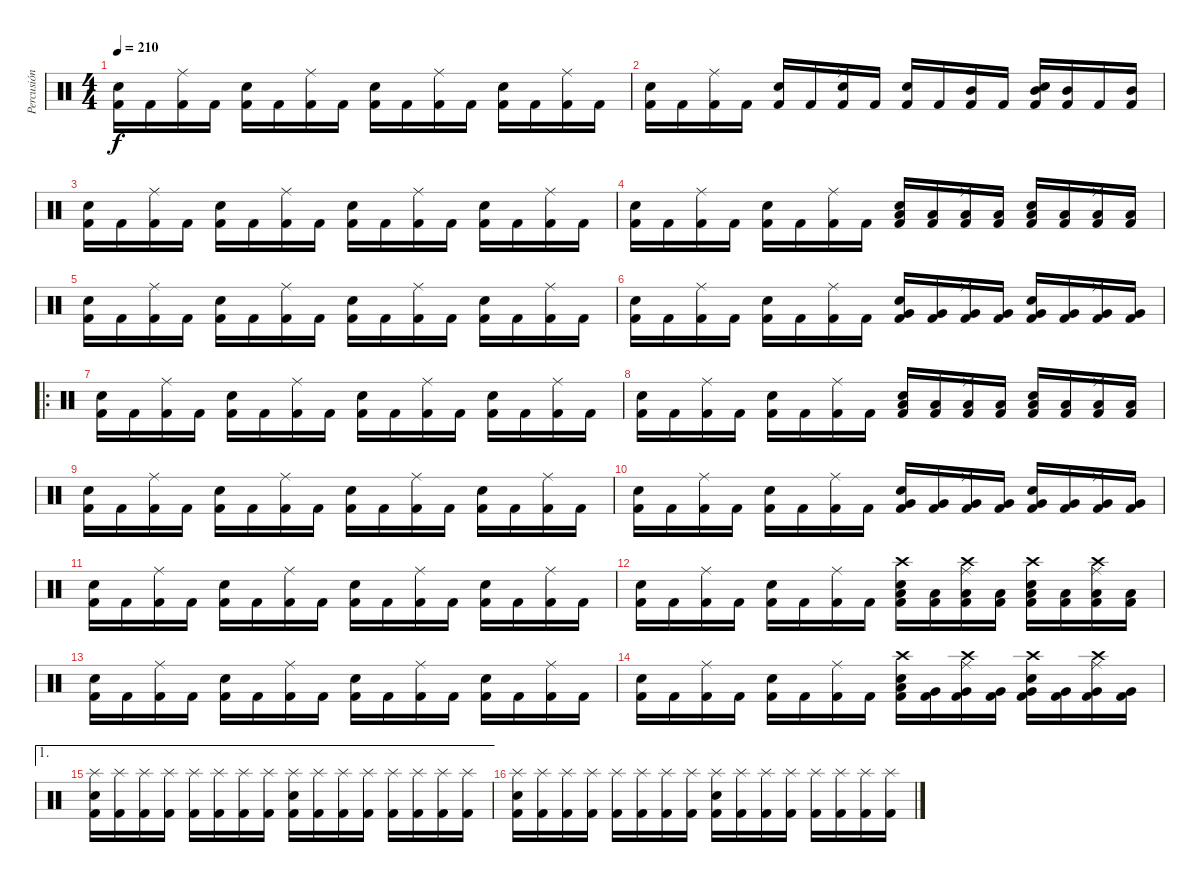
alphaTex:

\track ("Percusión" "Percusión") {instrument percussion}
\staff {score}
\articulation defaults
\ts (4 4)
\tempo 210
\clef neutral
\ks c
("Kick (hit) 2" "Snare (hit) 2").16{dy f} "Kick (hit) 2".16 ("Kick (hit) 2" "Ride (middle)").16 "Kick (hit) 2".16 ("Kick (hit) 2" "Snare (hit) 2").16 "Kick (hit) 2".16 ("Kick (hit) 2" "Ride (middle)").16 "Kick (hit) 2".16 ("Kick (hit) 2" "Snare (hit) 2").16 "Kick (hit) 2".16 ("Kick (hit) 2" "Ride (middle)").16 "Kick (hit) 2".16 ("Kick (hit) 2" "Snare (hit) 2").16 "Kick (hit) 2".16 ("Kick (hit) 2" "Ride (middle)").16 "Kick (hit) 2".16 |
("Kick (hit) 2" "Snare (hit) 2").16 "Kick (hit) 2".16 ("Kick (hit) 2" "Ride (middle)").16 "Kick (hit) 2".16 ("Kick (hit) 2" "Snare (hit) 2").16 "Kick (hit) 2".16 ("Kick (hit) 2" "Ride (middle)" "Electric Snare (hit)").16 "Kick (hit) 2".16 ("Kick (hit) 2" "Snare (hit) 2").16 "Kick (hit) 2".16 ("Kick (hit) 2" "Mid Tom (hit)").16 "Kick (hit) 2".16 ("Kick (hit) 2" "Mid Tom (hit)" "Snare (hit) 2").16 ("Kick (hit) 2" "Mid Tom (hit)").16 "Kick (hit) 2".16 ("Kick (hit) 2" "Mid Tom (hit)").16 |
("Kick (hit) 2" "Snare (hit) 2").16 "Kick (hit) 2".16 ("Kick (hit) 2" "Ride (middle)").16 "Kick (hit) 2".16 ("Kick (hit) 2" "Snare (hit) 2").16 "Kick (hit) 2".16 ("Kick (hit) 2" "Ride (middle)").16 "Kick (hit) 2".16 ("Kick (hit) 2" "Snare (hit) 2").16 "Kick (hit) 2".16 ("Kick (hit) 2" "Ride (middle)").16 "Kick (hit) 2".16 ("Kick (hit) 2" "Snare (hit) 2").16 "Kick (hit) 2".16 ("Kick (hit) 2" "Ride (middle)").16 "Kick (hit) 2".16 |
("Kick (hit) 2" "Snare (hit) 2").16 "Kick (hit) 2".16 ("Kick (hit) 2" "Ride (middle)").16 "Kick (hit) 2".16 ("Kick (hit) 2" "Snare (hit) 2").16 "Kick (hit) 2".16 ("Kick (hit) 2" "Ride (middle)").16 "Kick (hit) 2".16 ("Kick (hit) 2" "Snare (hit) 2" "Low Tom (hit)").16 ("Kick (hit) 2" "Low Tom (hit)").16 ("Kick (hit) 2" "Ride (middle)" "Low Tom (hit)").16 ("Kick (hit) 2" "Low Tom (hit)").16 ("Kick (hit) 2" "Snare (hit) 2" "Low Tom (hit)").16 ("Kick (hit) 2" "Low Tom (hit)").16 ("Kick (hit) 2" "Ride (middle)" "Low Tom (hit)").16 ("Kick (hit) 2" "Low Tom (hit)").16 |
("Kick (hit) 2" "Snare (hit) 2").16 "Kick (hit) 2".16 ("Kick (hit) 2" "Ride (middle)").16 "Kick (hit) 2".16 ("Kick (hit) 2" "Snare (hit) 2").16 "Kick (hit) 2".16 ("Kick (hit) 2" "Ride (middle)").16 "Kick (hit) 2".16 ("Kick (hit) 2" "Snare (hit) 2").16 "Kick (hit) 2".16 ("Kick (hit) 2" "Ride (middle)").16 "Kick (hit) 2".16 ("Kick (hit) 2" "Snare (hit) 2").16 "Kick (hit) 2".16 ("Kick (hit) 2" "Ride (middle)").16 "Kick (hit) 2".16 |
("Kick (hit) 2" "Snare (hit) 2").16 "Kick (hit) 2".16 ("Kick (hit) 2" "Ride (middle)").16 "Kick (hit) 2".16 ("Kick (hit) 2" "Snare (hit) 2").16 "Kick (hit) 2".16 ("Kick (hit) 2" "Ride (middle)").16 "Kick (hit) 2".16 ("Kick (hit) 2" "Snare (hit) 2" "Very Low Tom (hit)").16 ("Kick (hit) 2" "Very Low Tom (hit)").16 ("Kick (hit) 2" "Ride (middle)" "Very Low Tom (hit)").16 ("Kick (hit) 2" "Very Low Tom (hit)").16 ("Kick (hit) 2" "Snare (hit) 2" "Very Low Tom (hit)").16 ("Kick (hit) 2" "Very Low Tom (hit)").16 ("Kick (hit) 2" "Ride (middle)" "Very Low Tom (hit)").16 ("Kick (hit) 2" "Very Low Tom (hit)").16 |
\ro
("Kick (hit) 2" "Snare (hit) 2").16 "Kick (hit) 2".16 ("Kick (hit) 2" "Ride (middle)").16 "Kick (hit) 2".16 ("Kick (hit) 2" "Snare (hit) 2").16 "Kick (hit) 2".16 ("Kick (hit) 2" "Ride (middle)").16 "Kick (hit) 2".16 ("Kick (hit) 2" "Snare (hit) 2").16 "Kick (hit) 2".16 ("Kick (hit) 2" "Ride (middle)").16 "Kick (hit) 2".16 ("Kick (hit) 2" "Snare (hit) 2").16 "Kick (hit) 2".16 ("Kick (hit) 2" "Ride (middle)").16 "Kick (hit) 2".16 |
("Kick (hit) 2" "Snare (hit) 2").16 "Kick (hit) 2".16 ("Kick (hit) 2" "Ride (middle)").16 "Kick (hit) 2".16 ("Kick (hit) 2" "Snare (hit) 2").16 "Kick (hit) 2".16 ("Kick (hit) 2" "Ride (middle)").16 "Kick (hit) 2".16 ("Kick (hit) 2" "Snare (hit) 2" "Low Tom (hit)").16 ("Kick (hit) 2" "Low Tom (hit)").16 ("Kick (hit) 2" "Ride (middle)" "Low Tom (hit)").16 ("Kick (hit) 2" "Low Tom (hit)").16 ("Kick (hit) 2" "Snare (hit) 2" "Low Tom (hit)").16 ("Kick (hit) 2" "Low Tom (hit)").16 ("Kick (hit) 2" "Ride (middle)" "Low Tom (hit)").16 ("Kick (hit) 2" "Low Tom (hit)").16 |
("Kick (hit) 2" "Snare (hit) 2").16 "Kick (hit) 2".16 ("Kick (hit) 2" "Ride (middle)").16 "Kick (hit) 2".16 ("Kick (hit) 2" "Snare (hit) 2").16 "Kick (hit) 2".16 ("Kick (hit) 2" "Ride (middle)").16 "Kick (hit) 2".16 ("Kick (hit) 2" "Snare (hit) 2").16 "Kick (hit) 2".16 ("Kick (hit) 2" "Ride (middle)").16 "Kick (hit) 2".16 ("Kick (hit) 2" "Snare (hit) 2").16 "Kick (hit) 2".16 ("Kick (hit) 2" "Ride (middle)").16 "Kick (hit) 2".16 |
("Kick (hit) 2" "Snare (hit) 2").16 "Kick (hit) 2".16 ("Kick (hit) 2" "Ride (middle)").16 "Kick (hit) 2".16 ("Kick (hit) 2" "Snare (hit) 2").16 "Kick (hit) 2".16 ("Kick (hit) 2" "Ride (middle)").16 "Kick (hit) 2".16 ("Kick (hit) 2" "Snare (hit) 2" "Very Low Tom (hit)").16 ("Kick (hit) 2" "Very Low Tom (hit)").16 ("Kick (hit) 2" "Ride (middle)" "Very Low Tom (hit)").16 ("Kick (hit) 2" "Very Low Tom (hit)").16 ("Kick (hit) 2" "Snare (hit) 2" "Very Low Tom (hit)").16 ("Kick (hit) 2" "Very Low Tom (hit)").16 ("Kick (hit) 2" "Ride (middle)" "Very Low Tom (hit)").16 ("Kick (hit) 2" "Very Low Tom (hit)").16 |
("Kick (hit) 2" "Snare (hit) 2").16 "Kick (hit) 2".16 ("Kick (hit) 2" "Ride (middle)").16 "Kick (hit) 2".16 ("Kick (hit) 2" "Snare (hit) 2").16 "Kick (hit) 2".16 ("Kick (hit) 2" "Ride (middle)").16 "Kick (hit) 2".16 ("Kick (hit) 2" "Snare (hit) 2").16 "Kick (hit) 2".16 ("Kick (hit) 2" "Ride (middle)").16 "Kick (hit) 2".16 ("Kick (hit) 2" "Snare (hit) 2").16 "Kick (hit) 2".16 ("Kick (hit) 2" "Ride (middle)").16 "Kick (hit) 2".16 |
("Kick (hit) 2" "Snare (hit) 2").16 "Kick (hit) 2".16 ("Kick (hit) 2" "Ride (middle)").16 "Kick (hit) 2".16 ("Kick (hit) 2" "Snare (hit) 2").16 "Kick (hit) 2".16 ("Kick (hit) 2" "Ride (middle)").16 "Kick (hit) 2".16 ("Kick (hit) 2" "Snare (hit) 2" "Low Tom (hit)" "Crash high (hit)").16 ("Kick (hit) 2" "Low Tom (hit)").16 ("Kick (hit) 2" "Ride (middle)" "Low Tom (hit)" "Crash high (hit)").16 ("Kick (hit) 2" "Low Tom (hit)").16 ("Kick (hit) 2" "Snare (hit) 2" "Low Tom (hit)" "Crash high (hit)").16 ("Kick (hit) 2" "Low Tom (hit)").16 ("Kick (hit) 2" "Ride (middle)" "Low Tom (hit)" "Crash high (hit)").16 ("Kick (hit) 2" "Low Tom (hit)").16 |
("Kick (hit) 2" "Snare (hit) 2").16 "Kick (hit) 2".16 ("Kick (hit) 2" "Ride (middle)").16 "Kick (hit) 2".16 ("Kick (hit) 2" "Snare (hit) 2").16 "Kick (hit) 2".16 ("Kick (hit) 2" "Ride (middle)").16 "Kick (hit) 2".16 ("Kick (hit) 2" "Snare (hit) 2").16 "Kick (hit) 2".16 ("Kick (hit) 2" "Ride (middle)").16 "Kick (hit) 2".16 ("Kick (hit) 2" "Snare (hit) 2").16 "Kick (hit) 2".16 ("Kick (hit) 2" "Ride (middle)").16 "Kick (hit) 2".16 |
("Kick (hit) 2" "Snare (hit) 2").16 "Kick (hit) 2".16 ("Kick (hit) 2" "Ride (middle)").16 "Kick (hit) 2".16 ("Kick (hit) 2" "Snare (hit) 2").16 "Kick (hit) 2".16 ("Kick (hit) 2" "Ride (middle)").16 "Kick (hit) 2".16 ("Kick (hit) 2" "Snare (hit) 2" "Low Tom (hit)" "Crash high (hit)").16 ("Kick (hit) 2" "Very Low Tom (hit)").16 ("Kick (hit) 2" "Ride (middle)" "Very Low Tom (hit)" "Crash high (hit)").16 ("Kick (hit) 2" "Very Low Tom (hit)").16 ("Kick (hit) 2" "Snare (hit) 2" "Very Low Tom (hit)" "Crash high (hit)").16 ("Kick (hit) 2" "Very Low Tom (hit)").16 ("Kick (hit) 2" "Ride (middle)" "Very Low Tom (hit)" "Crash high (hit)").16 ("Kick (hit) 2" "Very Low Tom (hit)").16 |
\ae 1
("Kick (hit) 2" "Snare (hit) 2" "Splash (hit)").16 ("Kick (hit) 2" "Splash (hit)").16 ("Kick (hit) 2" "Splash (hit)").16 ("Kick (hit) 2" "Splash (hit)").16 ("Kick (hit) 2" "Splash (hit)").16 ("Kick (hit) 2" "Splash (hit)").16 ("Kick (hit) 2" "Splash (hit)").16 ("Kick (hit) 2" "Splash (hit)").16 ("Kick (hit) 2" "Snare (hit) 2" "Splash (hit)").16 ("Kick (hit) 2" "Splash (hit)").16 ("Kick (hit) 2" "Splash (hit)").16 ("Kick (hit) 2" "Splash (hit)").16 ("Kick (hit) 2" "Splash (hit)").16 ("Kick (hit) 2" "Splash (hit)").16 ("Kick (hit) 2" "Splash (hit)").16 ("Kick (hit) 2" "Splash (hit)").16 |
("Kick (hit) 2" "Snare (hit) 2" "Splash (hit)").16 ("Kick (hit) 2" "Splash (hit)").16 ("Kick (hit) 2" "Splash (hit)").16 ("Kick (hit) 2" "Splash (hit)").16 ("Kick (hit) 2" "Splash (hit)").16 ("Kick (hit) 2" "Splash (hit)").16 ("Kick (hit) 2" "Splash (hit)").16 ("Kick (hit) 2" "Splash (hit)").16 ("Kick (hit) 2" "Snare (hit) 2" "Splash (hit)").16 ("Kick (hit) 2" "Splash (hit)").16 ("Kick (hit) 2" "Splash (hit)").16 ("Kick (hit) 2" "Splash (hit)").16 ("Kick (hit) 2" "Splash (hit)").16 ("Kick (hit) 2" "Splash (hit)").16 ("Kick (hit) 2" "Splash (hit)").16 ("Kick (hit) 2" "Splash (hit)").16
